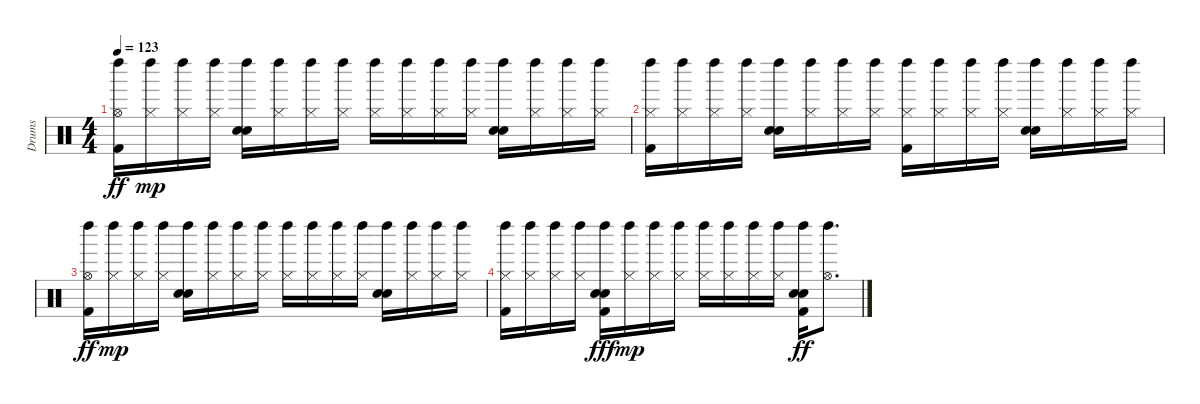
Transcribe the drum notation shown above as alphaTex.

\track ("Drums" "Drums") {instrument percussion}
\staff {score}
\articulation defaults
\ts (4 4)
\tempo 123
\clef neutral
\ks c
("Left Maraca (hit)" "Hi-Hat (open)" "Kick (hit) 2").16{dy ff} ("Left Maraca (hit)" "Hi-Hat (closed)").16{dy mp} ("Left Maraca (hit)" "Hi-Hat (closed)").16 ("Left Maraca (hit)" "Hi-Hat (closed)").16 ("Left Maraca (hit)" "Snare (hit) 2" "Hand Clap (hit)").16 ("Left Maraca (hit)" "Hi-Hat (closed)").16 ("Left Maraca (hit)" "Hi-Hat (closed)").16 ("Left Maraca (hit)" "Hi-Hat (closed)").16 ("Left Maraca (hit)" "Hi-Hat (closed)").16 ("Left Maraca (hit)" "Hi-Hat (closed)").16 ("Left Maraca (hit)" "Hi-Hat (closed)").16 ("Left Maraca (hit)" "Hi-Hat (closed)").16 ("Left Maraca (hit)" "Snare (hit) 2" "Hand Clap (hit)").16 ("Left Maraca (hit)" "Hi-Hat (closed)").16 ("Left Maraca (hit)" "Hi-Hat (closed)").16 ("Left Maraca (hit)" "Hi-Hat (closed)").16 |
("Left Maraca (hit)" "Hi-Hat (closed)" "Kick (hit) 2").16 ("Left Maraca (hit)" "Hi-Hat (closed)").16 ("Left Maraca (hit)" "Hi-Hat (closed)").16 ("Left Maraca (hit)" "Hi-Hat (closed)").16 ("Left Maraca (hit)" "Snare (hit) 2" "Hand Clap (hit)").16 ("Left Maraca (hit)" "Hi-Hat (closed)").16 ("Left Maraca (hit)" "Hi-Hat (closed)").16 ("Left Maraca (hit)" "Hi-Hat (closed)").16 ("Left Maraca (hit)" "Hi-Hat (closed)" "Kick (hit) 2").16 ("Left Maraca (hit)" "Hi-Hat (closed)").16 ("Left Maraca (hit)" "Hi-Hat (closed)").16 ("Left Maraca (hit)" "Hi-Hat (closed)").16 ("Left Maraca (hit)" "Snare (hit) 2" "Hand Clap (hit)").16 ("Left Maraca (hit)" "Hi-Hat (closed)").16 ("Left Maraca (hit)" "Hi-Hat (closed)").16 ("Left Maraca (hit)" "Hi-Hat (closed)").16 |
("Left Maraca (hit)" "Hi-Hat (open)" "Kick (hit) 2").16{dy ff} ("Left Maraca (hit)" "Hi-Hat (closed)").16{dy mp} ("Left Maraca (hit)" "Hi-Hat (closed)").16 ("Left Maraca (hit)" "Hi-Hat (closed)").16 ("Left Maraca (hit)" "Snare (hit) 2" "Hand Clap (hit)").16 ("Left Maraca (hit)" "Hi-Hat (closed)").16 ("Left Maraca (hit)" "Hi-Hat (closed)").16 ("Left Maraca (hit)" "Hi-Hat (closed)").16 ("Left Maraca (hit)" "Hi-Hat (closed)").16 ("Left Maraca (hit)" "Hi-Hat (closed)").16 ("Left Maraca (hit)" "Hi-Hat (closed)").16 ("Left Maraca (hit)" "Hi-Hat (closed)").16 ("Left Maraca (hit)" "Snare (hit) 2" "Hand Clap (hit)").16 ("Left Maraca (hit)" "Hi-Hat (closed)").16 ("Left Maraca (hit)" "Hi-Hat (closed)").16 ("Left Maraca (hit)" "Hi-Hat (closed)").16 |
("Left Maraca (hit)" "Hi-Hat (closed)" "Kick (hit) 2").16 ("Left Maraca (hit)" "Hi-Hat (closed)").16 ("Left Maraca (hit)" "Hi-Hat (closed)").16 ("Left Maraca (hit)" "Hi-Hat (closed)").16 ("Left Maraca (hit)" "Snare (hit) 2" "Hand Clap (hit)" "Kick (hit) 2").16{dy fff} ("Left Maraca (hit)" "Hi-Hat (closed)").16{dy mp} ("Left Maraca (hit)" "Hi-Hat (closed)").16 ("Left Maraca (hit)" "Hi-Hat (closed)").16 ("Left Maraca (hit)" "Hi-Hat (closed)").16 ("Left Maraca (hit)" "Hi-Hat (closed)").16 ("Left Maraca (hit)" "Hi-Hat (closed)").16 ("Left Maraca (hit)" "Hi-Hat (closed)").16 ("Left Maraca (hit)" "Snare (hit) 2" "Hand Clap (hit)" "Kick (hit) 2").16{dy ff} ("Left Maraca (hit)" "Hi-Hat (open)").8{d}
